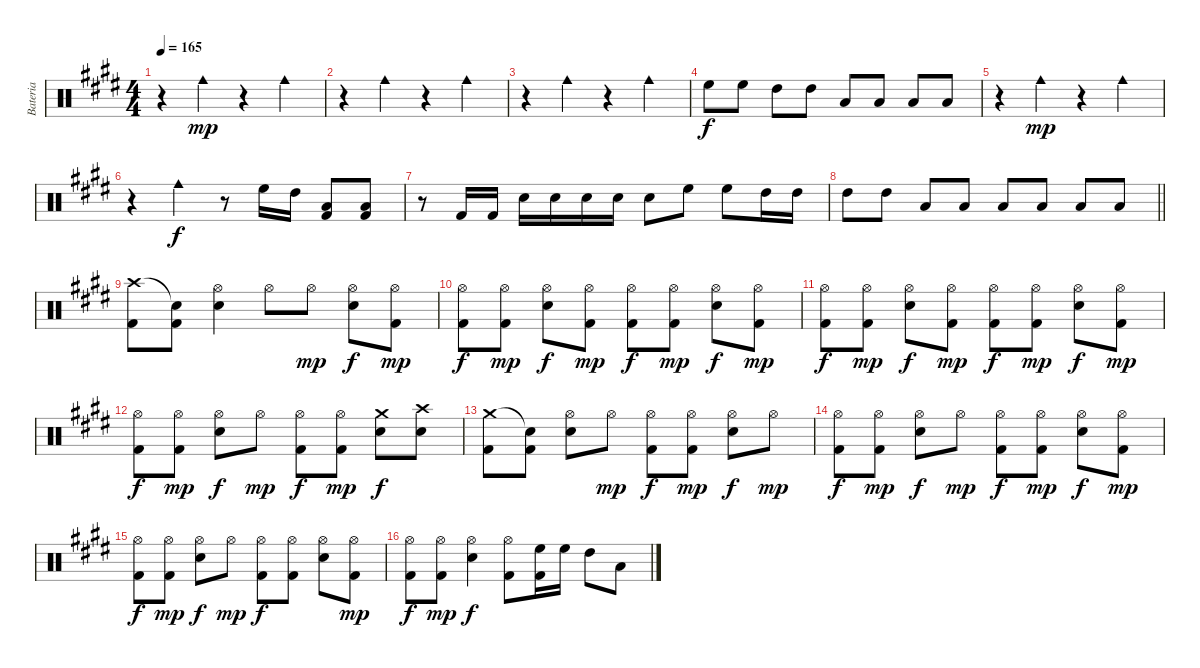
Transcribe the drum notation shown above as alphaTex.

\track ("Bateria" "Bateria") {instrument percussion}
\staff {score}
\articulation defaults
\ts (4 4)
\tempo 165
\clef neutral
\ks e
r.4{dy mp} "Cowbell medium (hit)".4 r.4 "Cowbell medium (hit)".4 |
r.4 "Cowbell medium (hit)".4 r.4 "Cowbell medium (hit)".4 |
r.4 "Cowbell medium (hit)".4 r.4 "Cowbell medium (hit)".4 |
"High Floor Tom (hit)".8{dy f} "High Floor Tom (hit)".8 "High Tom (hit)".8 "High Tom (hit)".8 "Low Tom (hit)".8 "Low Tom (hit)".8 "Low Floor Tom (hit)".8 "Low Floor Tom (hit)".8 |
r.4 "Cowbell medium (hit)".4{dy mp} r.4 "Cowbell medium (hit)".4 |
r.4 "Cowbell medium (hit)".4{dy f} r.8 "High Floor Tom (hit)".16 "High Tom (hit)".16 ("Low Tom (hit)" "Kick (hit) 2").8 ("Low Tom (hit)" "Kick (hit) 2").8 |
r.8 "Kick (hit) 2".16 "Kick (hit) 2".16 "Electric Snare (hit)".16 "Electric Snare (hit)".16 "Electric Snare (hit)".16 "Electric Snare (hit)".16 "Electric Snare (hit)".8 "High Floor Tom (hit)".8 "High Floor Tom (hit)".8 "High Tom (hit)".16 "High Tom (hit)".16 |
\barLineRight lightlight "High Tom (hit)".8 "High Tom (hit)".8 "Low Tom (hit)".8 "Low Tom (hit)".8 "Low Floor Tom (hit)".8 "Low Floor Tom (hit)".8 "Low Tom (hit)".8 "Low Tom (hit)".8
|
("Crash high (hit)" "Kick (hit) 2").8 ("Snare (hit)"{t} "Kick (hit) 2").8 ("Hi-Hat (open)" "Electric Snare (hit)").4 "Hi-Hat (open)".8 "Hi-Hat (open)".8{dy mp} ("Hi-Hat (open)" "Electric Snare (hit)").8{dy f} ("Hi-Hat (open)" "Kick (hit) 2").8{dy mp} |
("Hi-Hat (open)" "Kick (hit) 2").8{dy f} ("Hi-Hat (open)" "Kick (hit) 2").8{dy mp} ("Hi-Hat (open)" "Electric Snare (hit)").8{dy f} ("Hi-Hat (open)" "Kick (hit) 2").8{dy mp} ("Hi-Hat (open)" "Kick (hit) 2").8{dy f} ("Hi-Hat (open)" "Kick (hit) 2").8{dy mp} ("Hi-Hat (open)" "Electric Snare (hit)").8{dy f} ("Hi-Hat (open)" "Kick (hit) 2").8{dy mp} |
("Hi-Hat (open)" "Kick (hit) 2").8{dy f} ("Hi-Hat (open)" "Kick (hit) 2").8{dy mp} ("Hi-Hat (open)" "Electric Snare (hit)").8{dy f} ("Hi-Hat (open)" "Kick (hit) 2").8{dy mp} ("Hi-Hat (open)" "Kick (hit) 2").8{dy f} ("Hi-Hat (open)" "Kick (hit) 2").8{dy mp} ("Hi-Hat (open)" "Electric Snare (hit)").8{dy f} ("Hi-Hat (open)" "Kick (hit) 2").8{dy mp} |
("Hi-Hat (open)" "Kick (hit) 2").8{dy f} ("Hi-Hat (open)" "Kick (hit) 2").8{dy mp} ("Hi-Hat (open)" "Electric Snare (hit)").8{dy f} "Hi-Hat (open)".8{dy mp} ("Hi-Hat (open)" "Kick (hit) 2").8{dy f} ("Hi-Hat (open)" "Kick (hit) 2").8{dy mp} ("Crash medium (hit)" "Electric Snare (hit)").8{dy f} ("Crash high (hit)" "Electric Snare (hit)").8 |
("Crash medium (hit)" "Kick (hit) 2").8 ("Snare (hit)"{t} "Kick (hit) 2").8 ("Hi-Hat (open)" "Electric Snare (hit)").8 "Hi-Hat (open)".8{dy mp} ("Hi-Hat (open)" "Kick (hit) 2").8{dy f} ("Hi-Hat (open)" "Kick (hit) 2").8{dy mp} ("Hi-Hat (open)" "Electric Snare (hit)").8{dy f} "Hi-Hat (open)".8{dy mp} |
("Hi-Hat (open)" "Kick (hit) 2").8{dy f} ("Hi-Hat (open)" "Kick (hit) 2").8{dy mp} ("Hi-Hat (open)" "Electric Snare (hit)").8{dy f} "Hi-Hat (open)".8{dy mp} ("Hi-Hat (open)" "Kick (hit) 2").8{dy f} ("Hi-Hat (open)" "Kick (hit) 2").8{dy mp} ("Hi-Hat (open)" "Electric Snare (hit)").8{dy f} ("Hi-Hat (open)" "Kick (hit) 2").8{dy mp} |
("Hi-Hat (open)" "Kick (hit) 2").8{dy f} ("Hi-Hat (open)" "Kick (hit) 2").8{dy mp} ("Hi-Hat (open)" "Electric Snare (hit)").8{dy f} "Hi-Hat (open)".8{dy mp} ("Hi-Hat (open)" "Kick (hit) 2").8{dy f} ("Hi-Hat (open)" "Kick (hit) 2").8 ("Hi-Hat (open)" "Electric Snare (hit)").8 ("Hi-Hat (open)" "Kick (hit) 2").8{dy mp} |
("Hi-Hat (open)" "Kick (hit) 2").8{dy f} ("Hi-Hat (open)" "Kick (hit) 2").8{dy mp} ("Hi-Hat (open)" "Electric Snare (hit)").4{dy f} ("Hi-Hat (open)" "Kick (hit) 2").8 ("High Floor Tom (hit)" "Kick (hit) 2").16 "High Floor Tom (hit)".16 "High Tom (hit)".8 "Low Tom (hit)".8
